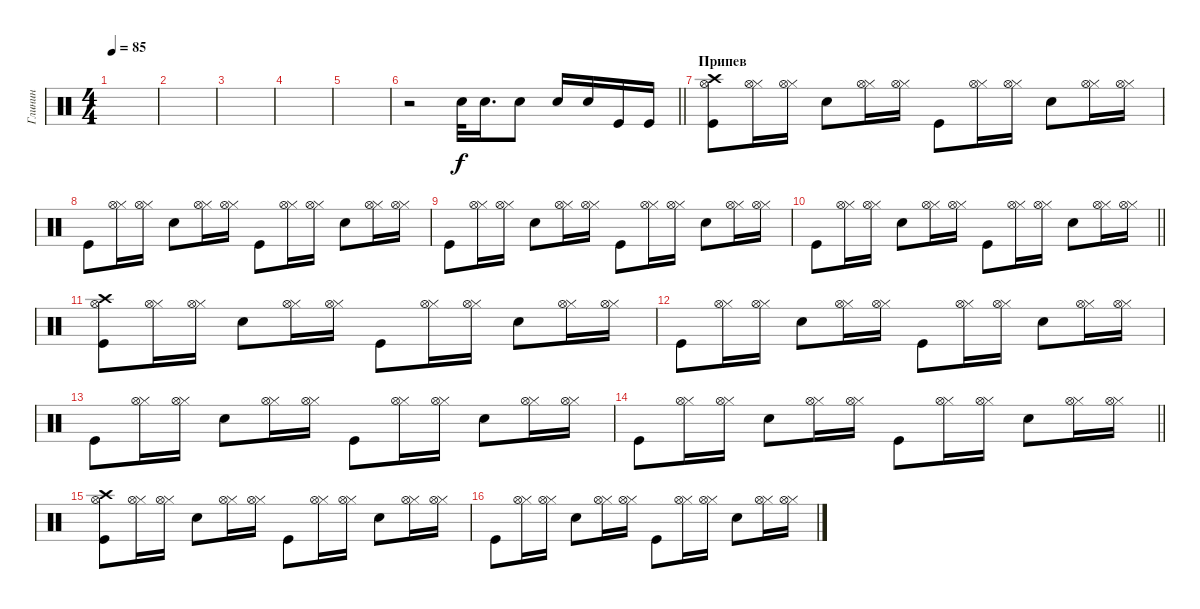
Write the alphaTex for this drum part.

\track ("Глинин" "Глинин") {instrument percussion}
\staff {score}
\articulation defaults
\ts (4 4)
\tempo 85
\clef neutral
\ks c
|
|
|
|
|
\barLineRight lightlight
r.2 "Snare (hit) 2".32 "Snare (hit) 2".16{d} "Snare (hit) 2".8 "Snare (hit) 2".16 "Snare (hit) 2".16 "Kick (hit)".16 "Kick (hit)".16 |
\section ("" "Припев")
("Kick (hit)" "Hi-Hat (open)" "Crash high (hit)").8 ("Hi-Hat (closed)" "Hi-Hat (open)").16 ("Hi-Hat (closed)" "Hi-Hat (open)").16 "Snare (hit) 2".8 ("Hi-Hat (closed)" "Hi-Hat (open)").16 ("Hi-Hat (closed)" "Hi-Hat (open)").16 "Kick (hit)".8 ("Hi-Hat (closed)" "Hi-Hat (open)").16 ("Hi-Hat (closed)" "Hi-Hat (open)").16 "Snare (hit) 2".8 ("Hi-Hat (closed)" "Hi-Hat (open)").16 ("Hi-Hat (closed)" "Hi-Hat (open)").16 |
"Kick (hit)".8 ("Hi-Hat (closed)" "Hi-Hat (open)").16 ("Hi-Hat (closed)" "Hi-Hat (open)").16 "Snare (hit) 2".8 ("Hi-Hat (closed)" "Hi-Hat (open)").16 ("Hi-Hat (closed)" "Hi-Hat (open)").16 "Kick (hit)".8 ("Hi-Hat (closed)" "Hi-Hat (open)").16 ("Hi-Hat (closed)" "Hi-Hat (open)").16 "Snare (hit) 2".8 ("Hi-Hat (closed)" "Hi-Hat (open)").16 ("Hi-Hat (closed)" "Hi-Hat (open)").16 |
"Kick (hit)".8 ("Hi-Hat (closed)" "Hi-Hat (open)").16 ("Hi-Hat (closed)" "Hi-Hat (open)").16 "Snare (hit) 2".8 ("Hi-Hat (closed)" "Hi-Hat (open)").16 ("Hi-Hat (closed)" "Hi-Hat (open)").16 "Kick (hit)".8 ("Hi-Hat (closed)" "Hi-Hat (open)").16 ("Hi-Hat (closed)" "Hi-Hat (open)").16 "Snare (hit) 2".8 ("Hi-Hat (closed)" "Hi-Hat (open)").16 ("Hi-Hat (closed)" "Hi-Hat (open)").16 |
\barLineRight lightlight "Kick (hit)".8
("Hi-Hat (closed)" "Hi-Hat (open)").16 ("Hi-Hat (closed)" "Hi-Hat (open)").16 "Snare (hit) 2".8 ("Hi-Hat (closed)" "Hi-Hat (open)").16 ("Hi-Hat (closed)" "Hi-Hat (open)").16 "Kick (hit)".8 ("Hi-Hat (closed)" "Hi-Hat (open)").16 ("Hi-Hat (closed)" "Hi-Hat (open)").16 "Snare (hit) 2".8 ("Hi-Hat (closed)" "Hi-Hat (open)").16 ("Hi-Hat (closed)" "Hi-Hat (open)").16 |
("Kick (hit)" "Hi-Hat (open)" "Crash high (hit)").8 ("Hi-Hat (closed)" "Hi-Hat (open)").16 ("Hi-Hat (closed)" "Hi-Hat (open)").16 "Snare (hit) 2".8 ("Hi-Hat (closed)" "Hi-Hat (open)").16 ("Hi-Hat (closed)" "Hi-Hat (open)").16 "Kick (hit)".8 ("Hi-Hat (closed)" "Hi-Hat (open)").16 ("Hi-Hat (closed)" "Hi-Hat (open)").16 "Snare (hit) 2".8 ("Hi-Hat (closed)" "Hi-Hat (open)").16 ("Hi-Hat (closed)" "Hi-Hat (open)").16 |
"Kick (hit)".8 ("Hi-Hat (closed)" "Hi-Hat (open)").16 ("Hi-Hat (closed)" "Hi-Hat (open)").16 "Snare (hit) 2".8 ("Hi-Hat (closed)" "Hi-Hat (open)").16 ("Hi-Hat (closed)" "Hi-Hat (open)").16 "Kick (hit)".8 ("Hi-Hat (closed)" "Hi-Hat (open)").16 ("Hi-Hat (closed)" "Hi-Hat (open)").16 "Snare (hit) 2".8 ("Hi-Hat (closed)" "Hi-Hat (open)").16 ("Hi-Hat (closed)" "Hi-Hat (open)").16 |
"Kick (hit)".8 ("Hi-Hat (closed)" "Hi-Hat (open)").16 ("Hi-Hat (closed)" "Hi-Hat (open)").16 "Snare (hit) 2".8 ("Hi-Hat (closed)" "Hi-Hat (open)").16 ("Hi-Hat (closed)" "Hi-Hat (open)").16 "Kick (hit)".8 ("Hi-Hat (closed)" "Hi-Hat (open)").16 ("Hi-Hat (closed)" "Hi-Hat (open)").16 "Snare (hit) 2".8 ("Hi-Hat (closed)" "Hi-Hat (open)").16 ("Hi-Hat (closed)" "Hi-Hat (open)").16 |
\barLineRight lightlight "Kick (hit)".8
("Hi-Hat (closed)" "Hi-Hat (open)").16 ("Hi-Hat (closed)" "Hi-Hat (open)").16 "Snare (hit) 2".8 ("Hi-Hat (closed)" "Hi-Hat (open)").16 ("Hi-Hat (closed)" "Hi-Hat (open)").16 "Kick (hit)".8 ("Hi-Hat (closed)" "Hi-Hat (open)").16 ("Hi-Hat (closed)" "Hi-Hat (open)").16 "Snare (hit) 2".8 ("Hi-Hat (closed)" "Hi-Hat (open)").16 ("Hi-Hat (closed)" "Hi-Hat (open)").16 |
("Kick (hit)" "Hi-Hat (open)" "Crash high (hit)").8 ("Hi-Hat (closed)" "Hi-Hat (open)").16 ("Hi-Hat (closed)" "Hi-Hat (open)").16 "Snare (hit) 2".8 ("Hi-Hat (closed)" "Hi-Hat (open)").16 ("Hi-Hat (closed)" "Hi-Hat (open)").16 "Kick (hit)".8 ("Hi-Hat (closed)" "Hi-Hat (open)").16 ("Hi-Hat (closed)" "Hi-Hat (open)").16 "Snare (hit) 2".8 ("Hi-Hat (closed)" "Hi-Hat (open)").16 ("Hi-Hat (closed)" "Hi-Hat (open)").16 |
"Kick (hit)".8 ("Hi-Hat (closed)" "Hi-Hat (open)").16 ("Hi-Hat (closed)" "Hi-Hat (open)").16 "Snare (hit) 2".8 ("Hi-Hat (closed)" "Hi-Hat (open)").16 ("Hi-Hat (closed)" "Hi-Hat (open)").16 "Kick (hit)".8 ("Hi-Hat (closed)" "Hi-Hat (open)").16 ("Hi-Hat (closed)" "Hi-Hat (open)").16 "Snare (hit) 2".8 ("Hi-Hat (closed)" "Hi-Hat (open)").16 ("Hi-Hat (closed)" "Hi-Hat (open)").16
